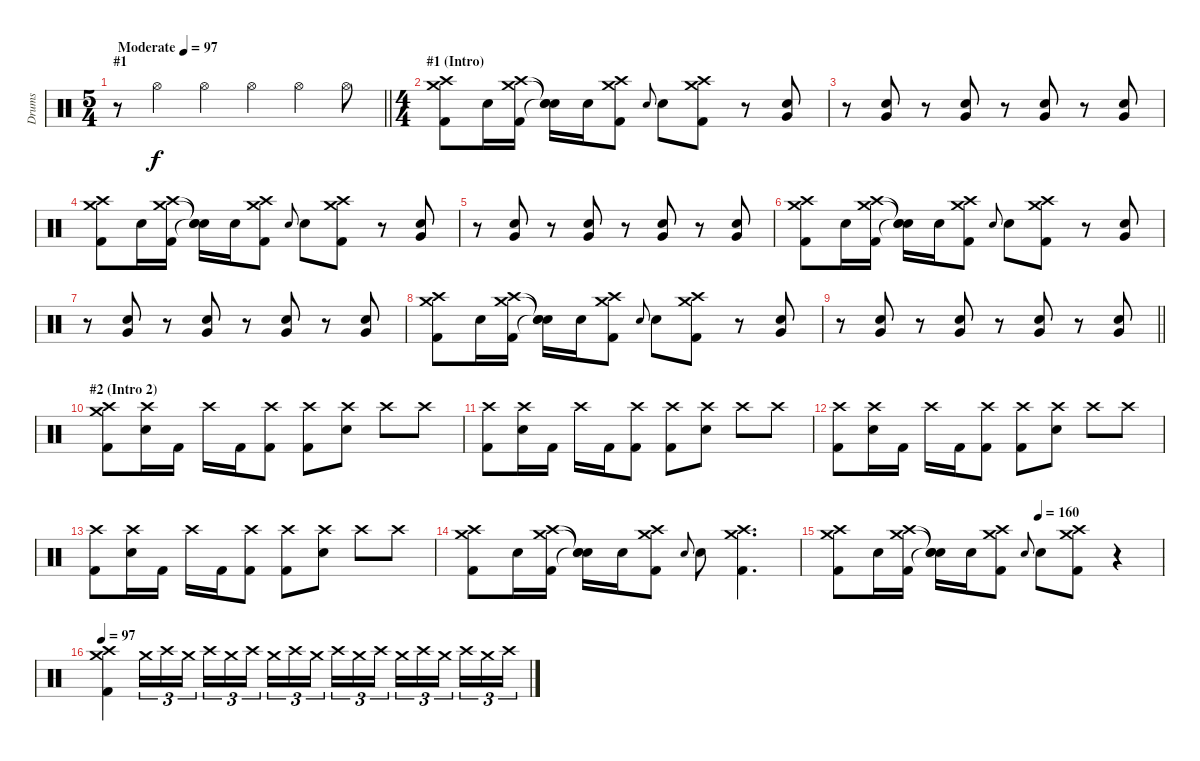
\track ("Drums" "Drums") {instrument percussion}
\staff {score}
\articulation defaults
\ts (5 4)
\section ("" "#1")
\tempo (97 "Moderate")
\clef neutral
\barLineRight lightlight
\ks c
r.8{dy f} "Hi-Hat (open)".4 "Hi-Hat (open)".4 "Hi-Hat (open)".4 "Hi-Hat (open)".4 "Hi-Hat (open)".8 |
\ts (4 4)
\section ("" "#1 (Intro)")
("Crash medium (hit)" "Crash high (hit)" "Kick (hit) 2").8 "Electric Snare (hit)".16 ("Crash medium (hit)" "Crash high (hit)" "Kick (hit) 2").16 ("Snare (hit)"{t} "Snare (hit)"{t} "Snare (hit)"{t}).16 "Electric Snare (hit)".16 ("Crash medium (hit)" "Crash high (hit)" "Kick (hit) 2").8 "Electric Snare (hit)".8{gr onbeat} "Electric Snare (hit)".8 ("Crash medium (hit)" "Crash high (hit)" "Kick (hit) 2").8 r.8 ("Electric Snare (hit)" "Very Low Tom (hit)").8 |
r.8 ("Electric Snare (hit)" "Very Low Tom (hit)").8 r.8 ("Electric Snare (hit)" "Very Low Tom (hit)").8 r.8 ("Electric Snare (hit)" "Very Low Tom (hit)").8 r.8 ("Electric Snare (hit)" "Very Low Tom (hit)").8 |
("Crash medium (hit)" "Crash high (hit)" "Kick (hit) 2").8 "Electric Snare (hit)".16 ("Crash medium (hit)" "Crash high (hit)" "Kick (hit) 2").16 ("Snare (hit)"{t} "Snare (hit)"{t} "Snare (hit)"{t}).16 "Electric Snare (hit)".16 ("Crash medium (hit)" "Crash high (hit)" "Kick (hit) 2").8 "Electric Snare (hit)".8{gr onbeat} "Electric Snare (hit)".8 ("Crash medium (hit)" "Crash high (hit)" "Kick (hit) 2").8 r.8 ("Electric Snare (hit)" "Very Low Tom (hit)").8 |
r.8 ("Electric Snare (hit)" "Very Low Tom (hit)").8 r.8 ("Electric Snare (hit)" "Very Low Tom (hit)").8 r.8 ("Electric Snare (hit)" "Very Low Tom (hit)").8 r.8 ("Electric Snare (hit)" "Very Low Tom (hit)").8 |
("Crash medium (hit)" "Crash high (hit)" "Kick (hit) 2").8 "Electric Snare (hit)".16 ("Crash medium (hit)" "Crash high (hit)" "Kick (hit) 2").16 ("Snare (hit)"{t} "Snare (hit)"{t} "Snare (hit)"{t}).16 "Electric Snare (hit)".16 ("Crash medium (hit)" "Crash high (hit)" "Kick (hit) 2").8 "Electric Snare (hit)".8{gr onbeat} "Electric Snare (hit)".8 ("Crash medium (hit)" "Crash high (hit)" "Kick (hit) 2").8 r.8 ("Electric Snare (hit)" "Very Low Tom (hit)").8 |
r.8 ("Electric Snare (hit)" "Very Low Tom (hit)").8 r.8 ("Electric Snare (hit)" "Very Low Tom (hit)").8 r.8 ("Electric Snare (hit)" "Very Low Tom (hit)").8 r.8 ("Electric Snare (hit)" "Very Low Tom (hit)").8 |
("Crash medium (hit)" "Crash high (hit)" "Kick (hit) 2").8 "Electric Snare (hit)".16 ("Crash medium (hit)" "Crash high (hit)" "Kick (hit) 2").16 ("Snare (hit)"{t} "Snare (hit)"{t} "Snare (hit)"{t}).16 "Electric Snare (hit)".16 ("Crash medium (hit)" "Crash high (hit)" "Kick (hit) 2").8 "Electric Snare (hit)".8{gr onbeat} "Electric Snare (hit)".8 ("Crash medium (hit)" "Crash high (hit)" "Kick (hit) 2").8 r.8 ("Electric Snare (hit)" "Very Low Tom (hit)").8 |
\barLineRight lightlight
r.8 ("Electric Snare (hit)" "Very Low Tom (hit)").8 r.8 ("Electric Snare (hit)" "Very Low Tom (hit)").8 r.8 ("Electric Snare (hit)" "Very Low Tom (hit)").8 r.8 ("Electric Snare (hit)" "Very Low Tom (hit)").8 |
\section ("" "#2 (Intro 2)")
("Crash medium (hit)" "Crash high (hit)" "Kick (hit) 2").8 ("Crash high (hit)" "Electric Snare (hit)").16 "Kick (hit) 2".16 "Crash high (hit)".16 "Kick (hit) 2".16 ("Crash high (hit)" "Kick (hit) 2").8 ("Crash high (hit)" "Kick (hit) 2").8 ("Crash high (hit)" "Electric Snare (hit)").8 "Crash high (hit)".8 "Crash high (hit)".8 |
("Crash high (hit)" "Kick (hit) 2").8 ("Crash high (hit)" "Electric Snare (hit)").16 "Kick (hit) 2".16 "Crash high (hit)".16 "Kick (hit) 2".16 ("Crash high (hit)" "Kick (hit) 2").8 ("Crash high (hit)" "Kick (hit) 2").8 ("Crash high (hit)" "Electric Snare (hit)").8 "Crash high (hit)".8 "Crash high (hit)".8 |
("Crash high (hit)" "Kick (hit) 2").8 ("Crash high (hit)" "Electric Snare (hit)").16 "Kick (hit) 2".16 "Crash high (hit)".16 "Kick (hit) 2".16 ("Crash high (hit)" "Kick (hit) 2").8 ("Crash high (hit)" "Kick (hit) 2").8 ("Crash high (hit)" "Electric Snare (hit)").8 "Crash high (hit)".8 "Crash high (hit)".8 |
("Crash high (hit)" "Kick (hit) 2").8 ("Crash high (hit)" "Electric Snare (hit)").16 "Kick (hit) 2".16 "Crash high (hit)".16 "Kick (hit) 2".16 ("Crash high (hit)" "Kick (hit) 2").8 ("Crash high (hit)" "Kick (hit) 2").8 ("Crash high (hit)" "Electric Snare (hit)").8 "Crash high (hit)".8 "Crash high (hit)".8 |
("Crash medium (hit)" "Crash high (hit)" "Kick (hit) 2").8 "Electric Snare (hit)".16 ("Crash medium (hit)" "Crash high (hit)" "Kick (hit) 2").16 ("Snare (hit)"{t} "Snare (hit)"{t} "Snare (hit)"{t}).16 "Electric Snare (hit)".16 ("Crash medium (hit)" "Crash high (hit)" "Kick (hit) 2").8 "Electric Snare (hit)".8{gr onbeat} "Electric Snare (hit)".8 ("Crash medium (hit)" "Crash high (hit)" "Kick (hit) 2").4{d} |
\tempo (160 0.625)
("Crash medium (hit)" "Crash high (hit)" "Kick (hit) 2").8 "Electric Snare (hit)".16 ("Crash medium (hit)" "Crash high (hit)" "Kick (hit) 2").16 ("Snare (hit)"{t} "Snare (hit)"{t} "Snare (hit)"{t}).16 "Electric Snare (hit)".16 ("Crash medium (hit)" "Crash high (hit)" "Kick (hit) 2").8 "Electric Snare (hit)".8{gr onbeat} "Electric Snare (hit)".8 ("Crash medium (hit)" "Crash high (hit)" "Kick (hit) 2").8 r.4 |
\tempo 97
("Crash medium (hit)" "Crash high (hit)" "Kick (hit) 2").4 "Crash medium (hit)".16{tu (3 2)} "Crash high (hit)".16{tu (3 2)} "Crash medium (hit)".16{tu (3 2) beam splitsecondary} "Crash high (hit)".16{tu (3 2)} "Crash medium (hit)".16{tu (3 2)} "Crash high (hit)".16{tu (3 2)} "Crash medium (hit)".16{tu (3 2)} "Crash high (hit)".16{tu (3 2)} "Crash medium (hit)".16{tu (3 2) beam splitsecondary} "Crash high (hit)".16{tu (3 2)} "Crash medium (hit)".16{tu (3 2)} "Crash high (hit)".16{tu (3 2)} "Crash medium (hit)".16{tu (3 2)} "Crash high (hit)".16{tu (3 2)} "Crash medium (hit)".16{tu (3 2) beam splitsecondary} "Crash high (hit)".16{tu (3 2)} "Crash medium (hit)".16{tu (3 2)} "Crash high (hit)".16{tu (3 2)}
